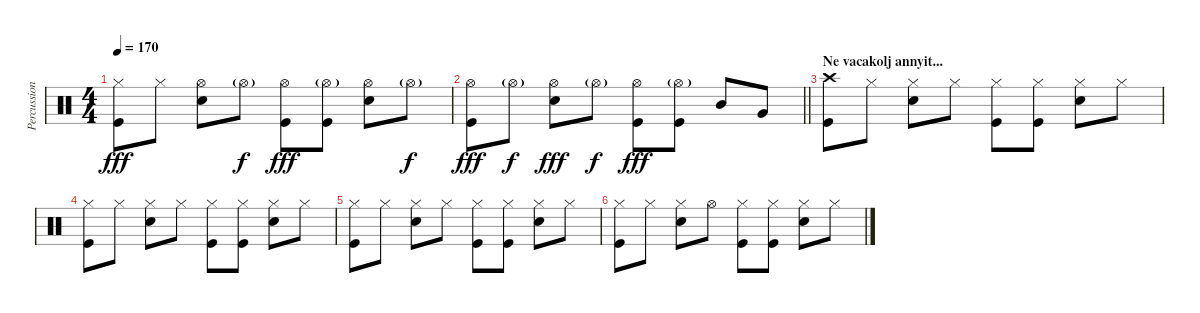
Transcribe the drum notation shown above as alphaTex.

\track ("Percussion" "Percussion") {instrument percussion}
\staff {score}
\articulation defaults
\ts (4 4)
\tempo 170
\clef neutral
\ks c
("Hi-Hat (closed)" "Kick (hit)").8{dy fff} "Hi-Hat (closed)".8 ("Hi-Hat (open)" "Snare (hit) 2").8 "Hi-Hat (open)"{g}.8{dy f} ("Hi-Hat (open)" "Kick (hit)").8{dy fff} ("Hi-Hat (open)"{g} "Kick (hit)").8 ("Hi-Hat (open)" "Snare (hit) 2").8 "Hi-Hat (open)"{g}.8{dy f} |
\barLineRight lightlight
("Hi-Hat (open)" "Kick (hit)").8{dy fff} "Hi-Hat (open)"{g}.8{dy f} ("Hi-Hat (open)" "Snare (hit) 2").8{dy fff} "Hi-Hat (open)"{g}.8{dy f} ("Hi-Hat (open)" "Kick (hit)").8{dy fff} ("Hi-Hat (open)"{g} "Kick (hit)").8 "Mid Tom (hit)".8 "Very Low Tom (hit)".8 |
\section ("" "Ne vacakolj annyit...")
("Crash high (hit)" "Kick (hit)").8 "Hi-Hat (closed)".8 ("Hi-Hat (closed)" "Snare (hit) 2").8 "Hi-Hat (closed)".8 ("Hi-Hat (closed)" "Kick (hit)").8 ("Hi-Hat (closed)" "Kick (hit)").8 ("Hi-Hat (closed)" "Snare (hit) 2").8 "Hi-Hat (closed)".8 |
("Hi-Hat (closed)" "Kick (hit)").8 "Hi-Hat (closed)".8 ("Hi-Hat (closed)" "Snare (hit) 2").8 "Hi-Hat (closed)".8 ("Hi-Hat (closed)" "Kick (hit)").8 ("Hi-Hat (closed)" "Kick (hit)").8 ("Hi-Hat (closed)" "Snare (hit) 2").8 "Hi-Hat (closed)".8 |
("Hi-Hat (closed)" "Kick (hit)").8 "Hi-Hat (closed)".8 ("Hi-Hat (closed)" "Snare (hit) 2").8 "Hi-Hat (closed)".8 ("Hi-Hat (closed)" "Kick (hit)").8 ("Hi-Hat (closed)" "Kick (hit)").8 ("Hi-Hat (closed)" "Snare (hit) 2").8 "Hi-Hat (closed)".8 |
("Hi-Hat (closed)" "Kick (hit)").8 "Hi-Hat (closed)".8 ("Hi-Hat (closed)" "Snare (hit) 2").8 "Hi-Hat (open)".8 ("Hi-Hat (closed)" "Kick (hit)").8 ("Hi-Hat (closed)" "Kick (hit)").8 ("Hi-Hat (closed)" "Snare (hit) 2").8 "Hi-Hat (closed)".8
